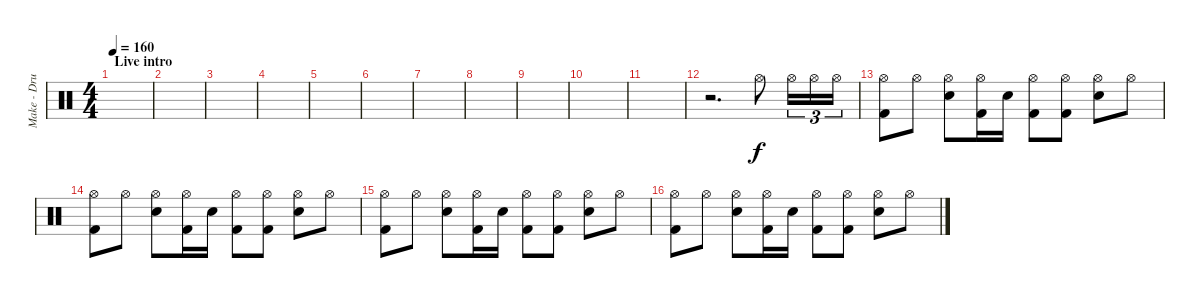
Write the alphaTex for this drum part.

\track ("Make - Drums" "Make - Dru") {instrument percussion}
\staff {score}
\articulation defaults
\ts (4 4)
\section ("" "Live intro")
\tempo 160
\tempo 130
\tempo 160
\clef neutral
\ks c
|
|
|
|
|
|
|
|
|
|
|
r.2{d} "Hi-Hat (open)".8 "Hi-Hat (open)".16{tu (3 2)} "Hi-Hat (open)".16{tu (3 2)} "Hi-Hat (open)".16{tu (3 2)} |
("Hi-Hat (open)" "Kick (hit) 2").8 "Hi-Hat (open)".8 ("Hi-Hat (open)" "Electric Snare (hit)").8 ("Hi-Hat (open)" "Kick (hit) 2").16 "Electric Snare (hit)".16 ("Hi-Hat (open)" "Kick (hit) 2").8 ("Hi-Hat (open)" "Kick (hit) 2").8 ("Hi-Hat (open)" "Electric Snare (hit)").8 "Hi-Hat (open)".8 |
("Hi-Hat (open)" "Kick (hit) 2").8 "Hi-Hat (open)".8 ("Hi-Hat (open)" "Electric Snare (hit)").8 ("Hi-Hat (open)" "Kick (hit) 2").16 "Electric Snare (hit)".16 ("Hi-Hat (open)" "Kick (hit) 2").8 ("Hi-Hat (open)" "Kick (hit) 2").8 ("Hi-Hat (open)" "Electric Snare (hit)").8 "Hi-Hat (open)".8 |
("Hi-Hat (open)" "Kick (hit) 2").8 "Hi-Hat (open)".8 ("Hi-Hat (open)" "Electric Snare (hit)").8 ("Hi-Hat (open)" "Kick (hit) 2").16 "Electric Snare (hit)".16 ("Hi-Hat (open)" "Kick (hit) 2").8 ("Hi-Hat (open)" "Kick (hit) 2").8 ("Hi-Hat (open)" "Electric Snare (hit)").8 "Hi-Hat (open)".8 |
("Hi-Hat (open)" "Kick (hit) 2").8 "Hi-Hat (open)".8 ("Hi-Hat (open)" "Electric Snare (hit)").8 ("Hi-Hat (open)" "Kick (hit) 2").16 "Electric Snare (hit)".16 ("Hi-Hat (open)" "Kick (hit) 2").8 ("Hi-Hat (open)" "Kick (hit) 2").8 ("Hi-Hat (open)" "Electric Snare (hit)").8 "Hi-Hat (open)".8
